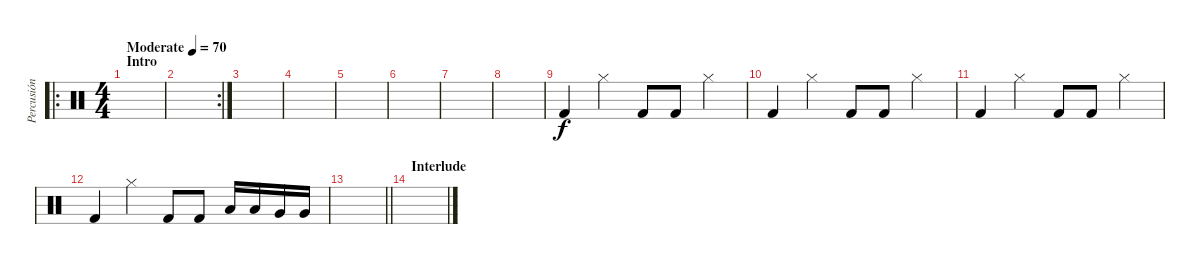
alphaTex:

\track ("Percusión" "Percusión") {instrument percussion}
\staff {score}
\articulation defaults
\ro
\ts (4 4)
\section ("" "Intro")
\tempo (70 "Moderate")
\clef neutral
\ks c
|
\rc 2
|
|
|
|
|
|
|
"Kick (hit) 2".4 "Hi-Hat (closed)".4 "Kick (hit) 2".8 "Kick (hit) 2".8 "Hi-Hat (closed)".4 |
"Kick (hit) 2".4 "Hi-Hat (closed)".4 "Kick (hit) 2".8 "Kick (hit) 2".8 "Hi-Hat (closed)".4 |
"Kick (hit) 2".4 "Hi-Hat (closed)".4 "Kick (hit) 2".8 "Kick (hit) 2".8 "Hi-Hat (closed)".4 |
"Kick (hit) 2".4 "Hi-Hat (closed)".4 "Kick (hit) 2".8 "Kick (hit) 2".8 "Low Tom (hit)".16 "Low Tom (hit)".16 "Very Low Tom (hit)".16 "Very Low Tom (hit)".16 |
\barLineRight lightlight
|
\section ("" "Interlude")
